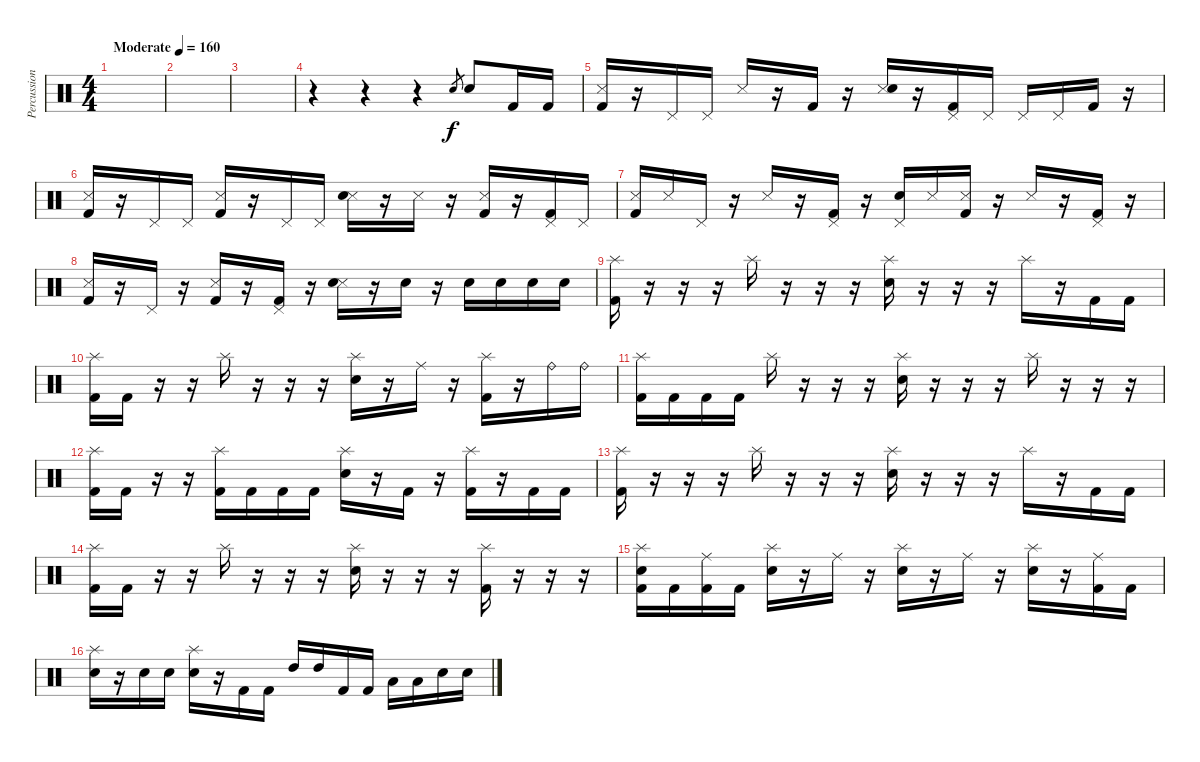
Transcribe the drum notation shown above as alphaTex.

\track ("Percussion" "Percussion") {instrument percussion}
\staff {score}
\articulation defaults
\ts (4 4)
\tempo (160 "Moderate")
\clef neutral
\ks c
|
|
|
r.4 r.4 r.4 "Electric Snare (hit)".8{gr} "Electric Snare (hit)".8 "Kick (hit) 2".16 "Kick (hit) 2".16 |
("Snare (side stick) 3" "Kick (hit) 2").16 r.16 "Pedal Hi-Hat (hit)".16 "Pedal Hi-Hat (hit)".16 "Snare (side stick) 3".16 r.16 "Kick (hit) 2".16 r.16 ("Snare (side stick) 3" "Electric Snare (hit)").16 r.16 ("Pedal Hi-Hat (hit)" "Kick (hit) 2").16 "Pedal Hi-Hat (hit)".16 "Pedal Hi-Hat (hit)".16 "Pedal Hi-Hat (hit)".16 "Kick (hit) 2".16 r.16 |
("Snare (side stick) 3" "Kick (hit) 2").16 r.16 "Pedal Hi-Hat (hit)".16 "Pedal Hi-Hat (hit)".16 ("Snare (side stick) 3" "Kick (hit) 2").16 r.16 "Pedal Hi-Hat (hit)".16 "Pedal Hi-Hat (hit)".16 ("Snare (side stick) 3" "Electric Snare (hit)").16 r.16 "Snare (side stick) 3".16 r.16 ("Snare (side stick) 3" "Kick (hit) 2").16 r.16 ("Pedal Hi-Hat (hit)" "Kick (hit) 2").16 "Pedal Hi-Hat (hit)".16 |
("Snare (side stick) 3" "Kick (hit) 2").16 "Snare (side stick) 3".16 "Pedal Hi-Hat (hit)".16 r.16 "Snare (side stick) 3".16 r.16 ("Pedal Hi-Hat (hit)" "Kick (hit) 2").16 r.16 ("Pedal Hi-Hat (hit)" "Electric Snare (hit)").16 "Snare (side stick) 3".16 ("Snare (side stick) 3" "Kick (hit) 2").16 r.16 "Snare (side stick) 3".16 r.16 ("Pedal Hi-Hat (hit)" "Kick (hit) 2").16 r.16 |
("Snare (side stick) 3" "Kick (hit) 2").16 r.16 "Pedal Hi-Hat (hit)".16 r.16 ("Snare (side stick) 3" "Kick (hit) 2").16 r.16 ("Pedal Hi-Hat (hit)" "Kick (hit) 2").16 r.16 ("Snare (side stick) 3" "Electric Snare (hit)").16 r.16 "Electric Snare (hit)".16 r.16 "Electric Snare (hit)".16 "Electric Snare (hit)".16 "Electric Snare (hit)".16 "Electric Snare (hit)".16 |
("Splash (hit)" "Kick (hit) 2").16 r.16 r.16 r.16 "Splash (hit)".16 r.16 r.16 r.16 ("Splash (hit)" "Electric Snare (hit)").16 r.16 r.16 r.16 "Splash (hit)".16 r.16 "Kick (hit) 2".16 "Kick (hit) 2".16 |
("Splash (hit)" "Kick (hit) 2").16 "Kick (hit) 2".16 r.16 r.16 "Splash (hit)".16 r.16 r.16 r.16 ("Splash (hit)" "Electric Snare (hit)").16 r.16 "Ride (middle)".16 r.16 ("Splash (hit)" "Kick (hit) 2").16 r.16 "Ride (bell)".16 "Ride (bell)".16 |
("Splash (hit)" "Kick (hit) 2").16 "Kick (hit) 2".16 "Kick (hit) 2".16 "Kick (hit) 2".16 "Splash (hit)".16 r.16 r.16 r.16 ("Splash (hit)" "Electric Snare (hit)").16 r.16 r.16 r.16 "Splash (hit)".16 r.16 r.16 r.16 |
("Splash (hit)" "Kick (hit) 2").16 "Kick (hit) 2".16 r.16 r.16 ("Splash (hit)" "Kick (hit) 2").16 "Kick (hit) 2".16 "Kick (hit) 2".16 "Kick (hit) 2".16 ("Splash (hit)" "Electric Snare (hit)").16 r.16 "Kick (hit) 2".16 r.16 ("Splash (hit)" "Kick (hit) 2").16 r.16 "Kick (hit) 2".16 "Kick (hit) 2".16 |
("Splash (hit)" "Kick (hit) 2").16 r.16 r.16 r.16 "Splash (hit)".16 r.16 r.16 r.16 ("Splash (hit)" "Electric Snare (hit)").16 r.16 r.16 r.16 "Splash (hit)".16 r.16 "Kick (hit) 2".16 "Kick (hit) 2".16 |
("Splash (hit)" "Kick (hit) 2").16 "Kick (hit) 2".16 r.16 r.16 "Splash (hit)".16 r.16 r.16 r.16 ("Splash (hit)" "Electric Snare (hit)").16 r.16 r.16 r.16 ("Splash (hit)" "Kick (hit) 2").16 r.16 r.16 r.16 |
("Splash (hit)" "Electric Snare (hit)" "Kick (hit) 2").16 "Kick (hit) 2".16 ("Ride (middle)" "Kick (hit) 2").16 "Kick (hit) 2".16 ("Splash (hit)" "Electric Snare (hit)").16 r.16 "Ride (middle)".16 r.16 ("Splash (hit)" "Electric Snare (hit)").16 r.16 "Ride (middle)".16 r.16 ("Splash (hit)" "Electric Snare (hit)").16 r.16 ("Ride (middle)" "Kick (hit) 2").16 "Kick (hit) 2".16 |
("Splash (hit)" "Electric Snare (hit)").16 r.16 "Electric Snare (hit)".16 "Electric Snare (hit)".16 ("Splash (hit)" "Electric Snare (hit)").16 r.16 "Kick (hit) 2".16 "Kick (hit) 2".16 "High Tom (hit)".16 "High Tom (hit)".16 "Kick (hit) 2".16 "Kick (hit) 2".16 "Low Floor Tom (hit)".16 "Low Floor Tom (hit)".16 "Electric Snare (hit)".16 "Electric Snare (hit)".16
